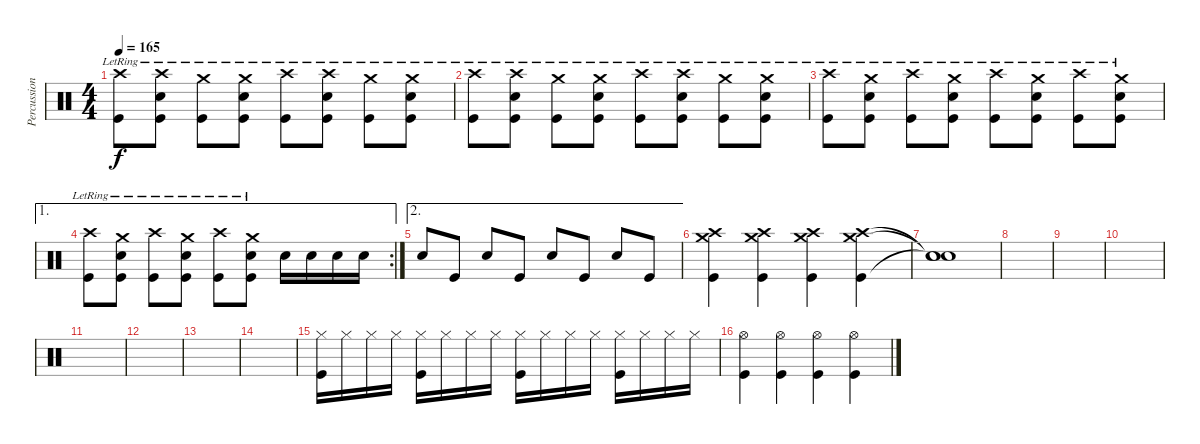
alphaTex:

\track ("Percussion" "Percussion") {instrument percussion}
\staff {score}
\articulation defaults
\ts (4 4)
\tempo 165
\clef neutral
\ks c
("Crash high (hit)"{lr} "Kick (hit)").8{dy f} ("Crash high (hit)"{lr} "Electric Snare (hit)" "Kick (hit)").8 ("Crash medium (hit)"{lr} "Kick (hit)").8 ("Crash medium (hit)"{lr} "Electric Snare (hit)" "Kick (hit)").8 ("Crash high (hit)"{lr} "Kick (hit)").8 ("Crash high (hit)"{lr} "Electric Snare (hit)" "Kick (hit)").8 ("Crash medium (hit)"{lr} "Kick (hit)").8 ("Crash medium (hit)"{lr} "Electric Snare (hit)" "Kick (hit)").8 |
("Crash high (hit)"{lr} "Kick (hit)").8 ("Crash high (hit)"{lr} "Electric Snare (hit)" "Kick (hit)").8 ("Crash medium (hit)"{lr} "Kick (hit)").8 ("Crash medium (hit)"{lr} "Electric Snare (hit)" "Kick (hit)").8 ("Crash high (hit)"{lr} "Kick (hit)").8 ("Crash high (hit)"{lr} "Electric Snare (hit)" "Kick (hit)").8 ("Crash medium (hit)"{lr} "Kick (hit)").8 ("Crash medium (hit)"{lr} "Electric Snare (hit)" "Kick (hit)").8 |
("Crash high (hit)"{lr} "Kick (hit)").8 ("Crash medium (hit)"{lr} "Electric Snare (hit)" "Kick (hit)").8 ("Crash high (hit)"{lr} "Kick (hit)").8 ("Crash medium (hit)"{lr} "Electric Snare (hit)" "Kick (hit)").8 ("Crash high (hit)"{lr} "Kick (hit)").8 ("Crash medium (hit)"{lr} "Electric Snare (hit)" "Kick (hit)").8 ("Crash high (hit)"{lr} "Kick (hit)").8 ("Crash medium (hit)"{lr} "Electric Snare (hit)" "Kick (hit)").8 |
\ae 1
\rc 2
("Crash high (hit)"{lr} "Kick (hit)").8 ("Crash medium (hit)"{lr} "Electric Snare (hit)" "Kick (hit)").8 ("Crash high (hit)"{lr} "Kick (hit)").8 ("Crash medium (hit)"{lr} "Electric Snare (hit)" "Kick (hit)").8 ("Crash high (hit)"{lr} "Kick (hit)").8 ("Crash medium (hit)"{lr} "Electric Snare (hit)" "Kick (hit)").8 "Electric Snare (hit)".16 "Electric Snare (hit)".16 "Electric Snare (hit)".16 "Electric Snare (hit)".16 |
\ae 2 "Electric Snare (hit)".8 "Kick (hit)".8 "Electric Snare (hit)".8 "Kick (hit)".8 "Electric Snare (hit)".8 "Kick (hit)".8 "Electric Snare (hit)".8 "Kick (hit)".8
|
("Crash high (hit)" "Crash medium (hit)" "Kick (hit)").4 ("Crash high (hit)" "Crash medium (hit)" "Kick (hit)").4 ("Crash high (hit)" "Crash medium (hit)" "Kick (hit)").4 ("Crash high (hit)" "Crash medium (hit)" "Kick (hit)").4 |
("Snare (hit)"{t} "Snare (hit)"{t} "Snare (hit)"{t}).1 |
|
|
|
|
|
|
|
("Hi-Hat (closed)" "Kick (hit)").16 "Hi-Hat (closed)".16 "Hi-Hat (closed)".16 "Hi-Hat (closed)".16 ("Hi-Hat (closed)" "Kick (hit)").16 "Hi-Hat (closed)".16 "Hi-Hat (closed)".16 "Hi-Hat (closed)".16 ("Hi-Hat (closed)" "Kick (hit)").16 "Hi-Hat (closed)".16 "Hi-Hat (closed)".16 "Hi-Hat (closed)".16 ("Hi-Hat (closed)" "Kick (hit)").16 "Hi-Hat (closed)".16 "Hi-Hat (closed)".16 "Hi-Hat (closed)".16 |
("Hi-Hat (open)" "Kick (hit)").4 ("Hi-Hat (open)" "Kick (hit)").4 ("Hi-Hat (open)" "Kick (hit)").4 ("Hi-Hat (open)" "Kick (hit)").4
